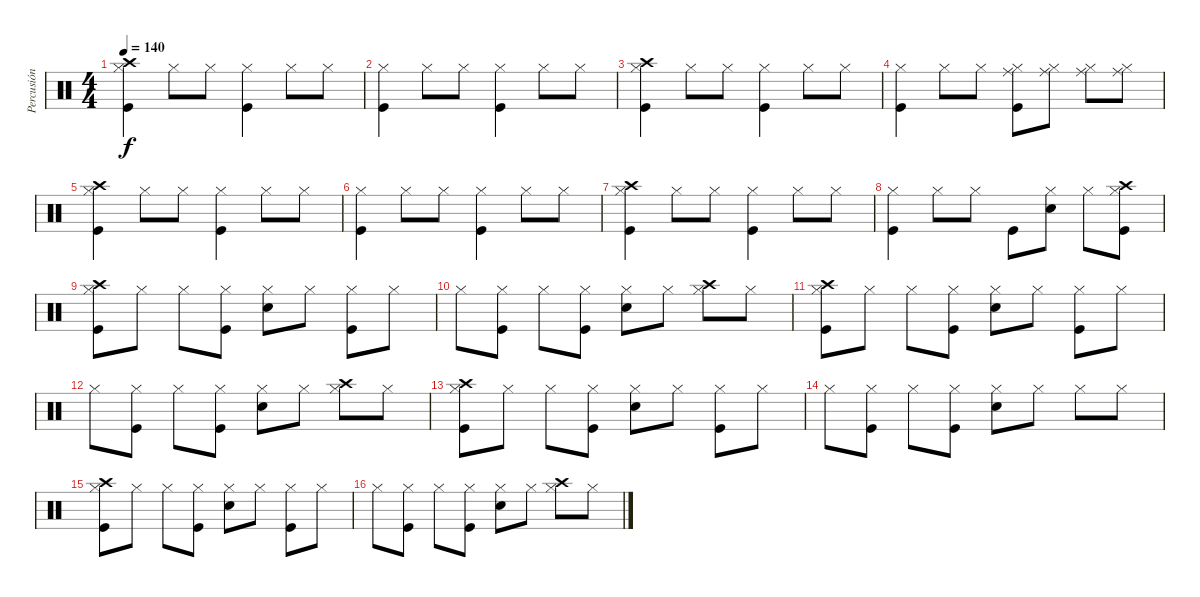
\track ("Percusión" "Percusión") {instrument percussion}
\staff {score}
\articulation defaults
\ts (4 4)
\tempo 140
\clef neutral
\ks c
("Crash high (hit)" "Hi-Hat (closed)" "Kick (hit)").4{dy f} "Hi-Hat (closed)".8 "Hi-Hat (closed)".8 ("Hi-Hat (closed)" "Kick (hit)").4 "Hi-Hat (closed)".8 "Hi-Hat (closed)".8 |
("Hi-Hat (closed)" "Kick (hit)").4 "Hi-Hat (closed)".8 "Hi-Hat (closed)".8 ("Hi-Hat (closed)" "Kick (hit)").4 "Hi-Hat (closed)".8 "Hi-Hat (closed)".8 |
("Crash high (hit)" "Hi-Hat (closed)" "Kick (hit)").4 "Hi-Hat (closed)".8 "Hi-Hat (closed)".8 ("Hi-Hat (closed)" "Kick (hit)").4 "Hi-Hat (closed)".8 "Hi-Hat (closed)".8 |
("Hi-Hat (closed)" "Kick (hit)").4 "Hi-Hat (closed)".8 "Hi-Hat (closed)".8 ("Ride (middle)" "Hi-Hat (closed)" "Kick (hit)").8 ("Ride (middle)" "Hi-Hat (closed)").8 ("Ride (middle)" "Hi-Hat (closed)").8 ("Ride (middle)" "Hi-Hat (closed)").8 |
("Crash high (hit)" "Hi-Hat (closed)" "Kick (hit)").4 "Hi-Hat (closed)".8 "Hi-Hat (closed)".8 ("Hi-Hat (closed)" "Kick (hit)").4 "Hi-Hat (closed)".8 "Hi-Hat (closed)".8 |
("Hi-Hat (closed)" "Kick (hit)").4 "Hi-Hat (closed)".8 "Hi-Hat (closed)".8 ("Hi-Hat (closed)" "Kick (hit)").4 "Hi-Hat (closed)".8 "Hi-Hat (closed)".8 |
("Crash high (hit)" "Hi-Hat (closed)" "Kick (hit)").4 "Hi-Hat (closed)".8 "Hi-Hat (closed)".8 ("Hi-Hat (closed)" "Kick (hit)").4 "Hi-Hat (closed)".8 "Hi-Hat (closed)".8 |
("Hi-Hat (closed)" "Kick (hit)").4 "Hi-Hat (closed)".8 "Hi-Hat (closed)".8 "Kick (hit)".8 ("Hi-Hat (closed)" "Electric Snare (hit)").8 "Hi-Hat (closed)".8 ("Crash high (hit)" "Hi-Hat (closed)" "Kick (hit)").8 |
("Crash high (hit)" "Hi-Hat (closed)" "Kick (hit)").8 "Hi-Hat (closed)".8 "Hi-Hat (closed)".8 ("Hi-Hat (closed)" "Kick (hit)").8 ("Hi-Hat (closed)" "Electric Snare (hit)").8 "Hi-Hat (closed)".8 ("Hi-Hat (closed)" "Kick (hit)").8 "Hi-Hat (closed)".8 |
"Hi-Hat (closed)".8 ("Hi-Hat (closed)" "Kick (hit)").8 "Hi-Hat (closed)".8 ("Hi-Hat (closed)" "Kick (hit)").8 ("Hi-Hat (closed)" "Electric Snare (hit)").8 "Hi-Hat (closed)".8 ("Crash high (hit)" "Hi-Hat (closed)").8 "Hi-Hat (closed)".8 |
("Crash high (hit)" "Hi-Hat (closed)" "Kick (hit)").8 "Hi-Hat (closed)".8 "Hi-Hat (closed)".8 ("Hi-Hat (closed)" "Kick (hit)").8 ("Hi-Hat (closed)" "Electric Snare (hit)").8 "Hi-Hat (closed)".8 ("Hi-Hat (closed)" "Kick (hit)").8 "Hi-Hat (closed)".8 |
"Hi-Hat (closed)".8 ("Hi-Hat (closed)" "Kick (hit)").8 "Hi-Hat (closed)".8 ("Hi-Hat (closed)" "Kick (hit)").8 ("Hi-Hat (closed)" "Electric Snare (hit)").8 "Hi-Hat (closed)".8 ("Crash high (hit)" "Hi-Hat (closed)").8 "Hi-Hat (closed)".8 |
("Crash high (hit)" "Hi-Hat (closed)" "Kick (hit)").8 "Hi-Hat (closed)".8 "Hi-Hat (closed)".8 ("Hi-Hat (closed)" "Kick (hit)").8 ("Hi-Hat (closed)" "Electric Snare (hit)").8 "Hi-Hat (closed)".8 ("Hi-Hat (closed)" "Kick (hit)").8 "Hi-Hat (closed)".8 |
"Hi-Hat (closed)".8 ("Hi-Hat (closed)" "Kick (hit)").8 "Hi-Hat (closed)".8 ("Hi-Hat (closed)" "Kick (hit)").8 ("Hi-Hat (closed)" "Electric Snare (hit)").8 "Hi-Hat (closed)".8 "Hi-Hat (closed)".8 "Hi-Hat (closed)".8 |
("Crash high (hit)" "Hi-Hat (closed)" "Kick (hit)").8 "Hi-Hat (closed)".8 "Hi-Hat (closed)".8 ("Hi-Hat (closed)" "Kick (hit)").8 ("Hi-Hat (closed)" "Electric Snare (hit)").8 "Hi-Hat (closed)".8 ("Hi-Hat (closed)" "Kick (hit)").8 "Hi-Hat (closed)".8 |
"Hi-Hat (closed)".8 ("Hi-Hat (closed)" "Kick (hit)").8 "Hi-Hat (closed)".8 ("Hi-Hat (closed)" "Kick (hit)").8 ("Hi-Hat (closed)" "Electric Snare (hit)").8 "Hi-Hat (closed)".8 ("Crash high (hit)" "Hi-Hat (closed)").8 "Hi-Hat (closed)".8
